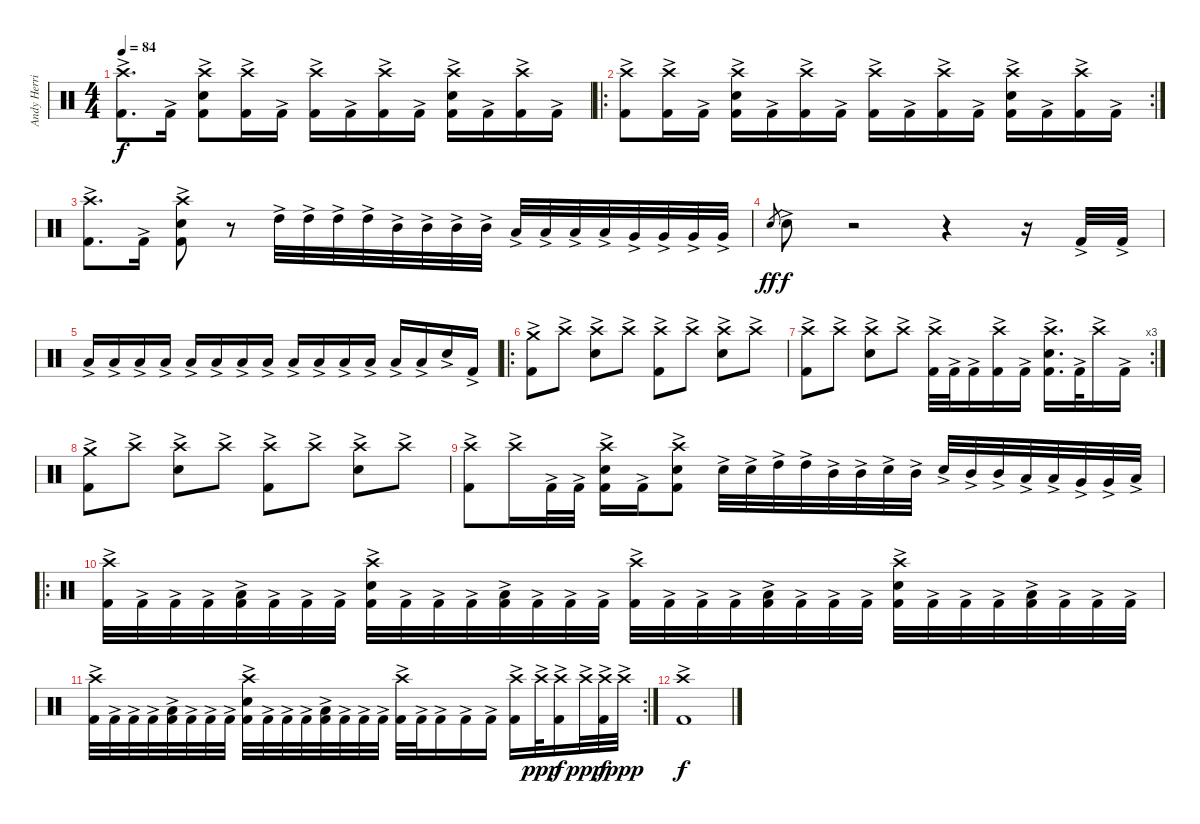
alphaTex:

\track ("Andy Herrick" "Andy Herri") {instrument percussion}
\staff {score}
\articulation defaults
\ts (4 4)
\tempo 84
\clef neutral
\ks c
("Crash high (hit)"{ac} "Kick (hit) 2"{ac}).8{d dy f} "Kick (hit) 2"{ac}.16 ("Crash high (hit)"{ac} "Electric Snare (hit)"{ac} "Kick (hit) 2"{ac}).8 ("Crash high (hit)"{ac} "Kick (hit) 2"{ac}).16 "Kick (hit) 2"{ac}.16 ("Crash high (hit)"{ac} "Kick (hit) 2"{ac}).16 "Kick (hit) 2"{ac}.16 ("Crash high (hit)"{ac} "Kick (hit) 2"{ac}).16 "Kick (hit) 2"{ac}.16 ("Crash high (hit)"{ac} "Electric Snare (hit)"{ac} "Kick (hit) 2"{ac}).16 "Kick (hit) 2"{ac}.16 ("Crash high (hit)"{ac} "Kick (hit) 2"{ac}).16 "Kick (hit) 2"{ac}.16 |
\ro
\rc 2
("Crash high (hit)"{ac} "Kick (hit) 2"{ac}).8 ("Crash high (hit)"{ac} "Kick (hit) 2"{ac}).16 "Kick (hit) 2"{ac}.16 ("Crash high (hit)"{ac} "Electric Snare (hit)"{ac} "Kick (hit) 2"{ac}).16 "Kick (hit) 2"{ac}.16 ("Crash high (hit)"{ac} "Kick (hit) 2"{ac}).16 "Kick (hit) 2"{ac}.16 ("Crash high (hit)"{ac} "Kick (hit) 2"{ac}).16 "Kick (hit) 2"{ac}.16 ("Crash high (hit)"{ac} "Kick (hit) 2"{ac}).16 "Kick (hit) 2"{ac}.16 ("Crash high (hit)"{ac} "Electric Snare (hit)"{ac} "Kick (hit) 2"{ac}).16 "Kick (hit) 2"{ac}.16 ("Crash high (hit)"{ac} "Kick (hit) 2"{ac}).16 "Kick (hit) 2"{ac}.16 |
("Crash high (hit)"{ac} "Kick (hit) 2"{ac}).8{d} "Kick (hit) 2"{ac}.16 ("Crash high (hit)"{ac} "Electric Snare (hit)"{ac} "Kick (hit) 2"{ac}).8 r.8 "High Tom (hit)"{ac}.32 "High Tom (hit)"{ac}.32 "High Tom (hit)"{ac}.32 "High Tom (hit)"{ac}.32 "Mid Tom (hit)"{ac}.32 "Mid Tom (hit)"{ac}.32 "Mid Tom (hit)"{ac}.32 "Mid Tom (hit)"{ac}.32 "Low Tom (hit)"{ac}.32 "Low Tom (hit)"{ac}.32 "Low Tom (hit)"{ac}.32 "Low Tom (hit)"{ac}.32 "Very Low Tom (hit)"{ac}.32 "Very Low Tom (hit)"{ac}.32 "Very Low Tom (hit)"{ac}.32 "Very Low Tom (hit)"{ac}.32 |
"Electric Snare (hit)".8{gr dy ff} "Electric Snare (hit)"{ac}.8{dy f} r.2 r.4 r.16 "Kick (hit) 2"{ac}.32 "Kick (hit) 2"{ac}.32 |
"Low Floor Tom (hit)"{ac}.16{volume 3} "Low Floor Tom (hit)"{ac}.16{volume 13} "Low Floor Tom (hit)"{ac}.16 "Low Floor Tom (hit)"{ac}.16 "Low Floor Tom (hit)"{ac}.16 "Low Floor Tom (hit)"{ac}.16 "Low Floor Tom (hit)"{ac}.16 "Low Floor Tom (hit)"{ac}.16 "Low Floor Tom (hit)"{ac}.16 "Low Floor Tom (hit)"{ac}.16 "Low Floor Tom (hit)"{ac}.16 "Low Floor Tom (hit)"{ac}.16 "Low Floor Tom (hit)"{ac}.16 "Low Floor Tom (hit)"{ac}.16 "Electric Snare (hit)"{ac}.16 "Kick (hit) 2"{ac}.16 |
\ro
("Crash medium (hit)"{ac} "Kick (hit) 2"{ac}).8 "Crash high (hit)"{ac}.8 ("Crash high (hit)"{ac} "Electric Snare (hit)"{ac}).8 "Crash high (hit)"{ac}.8 ("Crash high (hit)"{ac} "Kick (hit) 2"{ac}).8 "Crash high (hit)"{ac}.8 ("Crash high (hit)"{ac} "Electric Snare (hit)"{ac}).8 "Crash high (hit)"{ac}.8 |
\rc 3
("Crash high (hit)"{ac} "Kick (hit) 2"{ac}).8 "Crash high (hit)"{ac}.8 ("Crash high (hit)"{ac} "Electric Snare (hit)"{ac}).8 "Crash high (hit)"{ac}.8 ("Crash high (hit)"{ac} "Kick (hit) 2"{ac}).32 "Kick (hit) 2"{ac}.32 "Kick (hit) 2"{ac}.16 ("Crash high (hit)"{ac} "Kick (hit) 2"{ac}).16 "Kick (hit) 2"{ac}.16 ("Crash high (hit)"{ac} "Electric Snare (hit)"{ac} "Kick (hit) 2"{ac}).16{d} "Kick (hit) 2"{ac}.32 "Crash high (hit)"{ac}.16 "Kick (hit) 2"{ac}.16 |
("Crash medium (hit)"{ac} "Kick (hit) 2"{ac}).8 "Crash high (hit)"{ac}.8 ("Crash high (hit)"{ac} "Electric Snare (hit)"{ac}).8 "Crash high (hit)"{ac}.8 ("Crash high (hit)"{ac} "Kick (hit) 2"{ac}).8 "Crash high (hit)"{ac}.8 ("Crash high (hit)"{ac} "Electric Snare (hit)"{ac}).8 "Crash high (hit)"{ac}.8 |
("Crash high (hit)"{ac} "Kick (hit) 2"{ac}).8 "Crash high (hit)"{ac}.16 "Kick (hit) 2"{ac}.32 "Kick (hit) 2"{ac}.32 ("Crash high (hit)"{ac} "Electric Snare (hit)"{ac} "Kick (hit) 2"{ac}).16 "Kick (hit) 2"{ac}.16 ("Crash high (hit)"{ac} "Electric Snare (hit)"{ac} "Kick (hit) 2"{ac}).8 "Electric Snare (hit)"{ac}.32 "Electric Snare (hit)"{ac}.32 "High Tom (hit)"{ac}.32 "High Tom (hit)"{ac}.32 "Mid Tom (hit)"{ac}.32 "Mid Tom (hit)"{ac}.32 "Electric Snare (hit)"{ac}.32 "Mid Tom (hit)"{ac}.32 "Electric Snare (hit)"{ac}.32 "Mid Tom (hit)"{ac}.32 "Mid Tom (hit)"{ac}.32 "Low Tom (hit)"{ac}.32 "Low Tom (hit)"{ac}.32 "Very Low Tom (hit)"{ac}.32 "Very Low Tom (hit)"{ac}.32 "Low Floor Tom (hit)"{ac}.32 |
\ro
("Crash high (hit)"{ac} "Kick (hit) 2"{ac}).32 "Kick (hit) 2"{ac}.32 "Kick (hit) 2"{ac}.32 "Kick (hit) 2"{ac}.32 ("Low Floor Tom (hit)"{ac} "Kick (hit) 2"{ac}).32 "Kick (hit) 2"{ac}.32 "Kick (hit) 2"{ac}.32 "Kick (hit) 2"{ac}.32 ("Crash high (hit)"{ac} "Electric Snare (hit)"{ac} "Kick (hit) 2"{ac}).32 "Kick (hit) 2"{ac}.32 "Kick (hit) 2"{ac}.32 "Kick (hit) 2"{ac}.32 ("Low Floor Tom (hit)"{ac} "Kick (hit) 2"{ac}).32 "Kick (hit) 2"{ac}.32 "Kick (hit) 2"{ac}.32 "Kick (hit) 2"{ac}.32 ("Crash high (hit)"{ac} "Kick (hit) 2"{ac}).32 "Kick (hit) 2"{ac}.32 "Kick (hit) 2"{ac}.32 "Kick (hit) 2"{ac}.32 ("Low Floor Tom (hit)"{ac} "Kick (hit) 2"{ac}).32 "Kick (hit) 2"{ac}.32 "Kick (hit) 2"{ac}.32 "Kick (hit) 2"{ac}.32 ("Crash high (hit)"{ac} "Electric Snare (hit)"{ac} "Kick (hit) 2"{ac}).32 "Kick (hit) 2"{ac}.32 "Kick (hit) 2"{ac}.32 "Kick (hit) 2"{ac}.32 ("Low Floor Tom (hit)"{ac} "Kick (hit) 2"{ac}).32 "Kick (hit) 2"{ac}.32 "Kick (hit) 2"{ac}.32 "Kick (hit) 2"{ac}.32 |
\rc 2
("Crash high (hit)"{ac} "Kick (hit) 2"{ac}).32 "Kick (hit) 2"{ac}.32 "Kick (hit) 2"{ac}.32 "Kick (hit) 2"{ac}.32 ("Low Floor Tom (hit)"{ac} "Kick (hit) 2"{ac}).32 "Kick (hit) 2"{ac}.32 "Kick (hit) 2"{ac}.32 "Kick (hit) 2"{ac}.32 ("Crash high (hit)"{ac} "Electric Snare (hit)"{ac} "Kick (hit) 2"{ac}).32 "Kick (hit) 2"{ac}.32 "Kick (hit) 2"{ac}.32 "Kick (hit) 2"{ac}.32 ("Low Floor Tom (hit)"{ac} "Kick (hit) 2"{ac}).32 "Kick (hit) 2"{ac}.32 "Kick (hit) 2"{ac}.32 "Kick (hit) 2"{ac}.32 ("Crash high (hit)"{ac} "Kick (hit) 2"{ac}).32 "Kick (hit) 2"{ac}.32 "Kick (hit) 2"{ac}.16 "Kick (hit) 2"{ac}.16 "Kick (hit) 2"{ac}.16 ("Crash high (hit)"{ac} "Kick (hit) 2"{ac}).16 "Crash high (hit)"{ac}.32{dy ppp} ("Crash high (hit)"{ac} "Kick (hit) 2"{ac}).16{dy f} "Crash high (hit)"{ac}.32{dy ppp} ("Crash high (hit)"{ac} "Kick (hit) 2"{ac}).32{dy f} "Crash high (hit)"{ac}.32{dy ppp} |
("Crash high (hit)"{ac} "Kick (hit) 2"{ac}).1{dy f}
